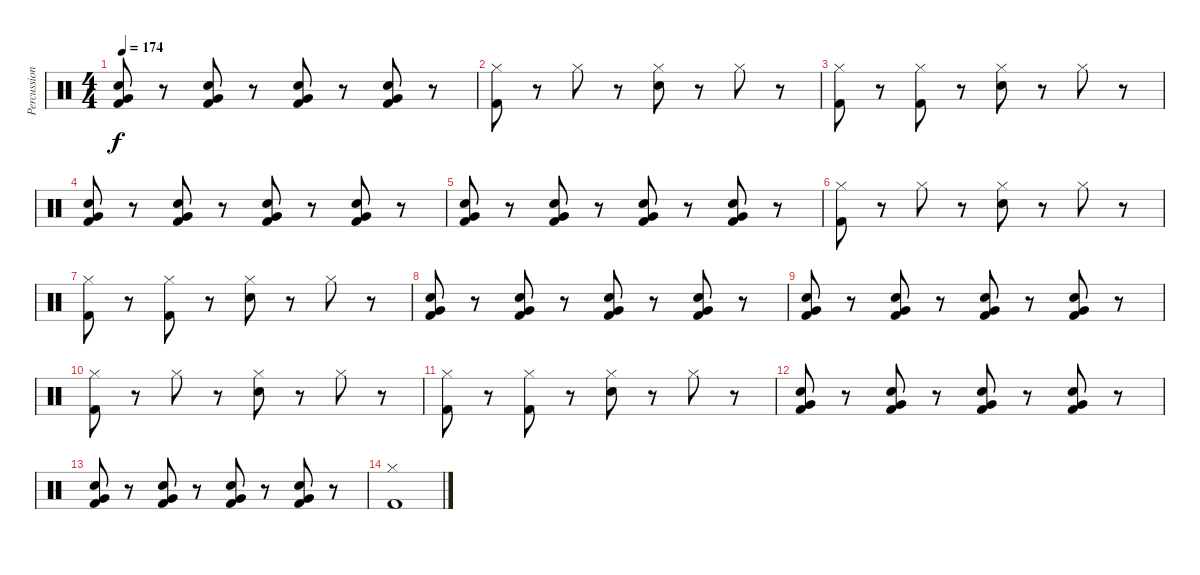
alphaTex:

\track ("Percussion" "Percussion") {instrument percussion}
\staff {score}
\articulation defaults
\ts (4 4)
\tempo 174
\clef neutral
\ks c
("Snare (hit) 2" "Very Low Tom (hit)" "Kick (hit) 2").8{dy f} r.8 ("Snare (hit) 2" "Very Low Tom (hit)" "Kick (hit) 2").8 r.8 ("Snare (hit) 2" "Very Low Tom (hit)" "Kick (hit) 2").8 r.8 ("Snare (hit) 2" "Very Low Tom (hit)" "Kick (hit) 2").8 r.8 |
("Hi-Hat (closed)" "Kick (hit) 2").8 r.8 "Hi-Hat (closed)".8 r.8 ("Hi-Hat (closed)" "Snare (hit) 2").8 r.8 "Hi-Hat (closed)".8 r.8 |
("Hi-Hat (closed)" "Kick (hit) 2").8 r.8 ("Hi-Hat (closed)" "Kick (hit) 2").8 r.8 ("Hi-Hat (closed)" "Snare (hit) 2").8 r.8 "Hi-Hat (closed)".8 r.8 |
("Snare (hit) 2" "Very Low Tom (hit)" "Kick (hit) 2").8 r.8 ("Snare (hit) 2" "Very Low Tom (hit)" "Kick (hit) 2").8 r.8 ("Snare (hit) 2" "Very Low Tom (hit)" "Kick (hit) 2").8 r.8 ("Snare (hit) 2" "Very Low Tom (hit)" "Kick (hit) 2").8 r.8 |
("Snare (hit) 2" "Very Low Tom (hit)" "Kick (hit) 2").8 r.8 ("Snare (hit) 2" "Very Low Tom (hit)" "Kick (hit) 2").8 r.8 ("Snare (hit) 2" "Very Low Tom (hit)" "Kick (hit) 2").8 r.8 ("Snare (hit) 2" "Very Low Tom (hit)" "Kick (hit) 2").8 r.8 |
("Hi-Hat (closed)" "Kick (hit) 2").8 r.8 "Hi-Hat (closed)".8 r.8 ("Hi-Hat (closed)" "Snare (hit) 2").8 r.8 "Hi-Hat (closed)".8 r.8 |
("Hi-Hat (closed)" "Kick (hit) 2").8 r.8 ("Hi-Hat (closed)" "Kick (hit) 2").8 r.8 ("Hi-Hat (closed)" "Snare (hit) 2").8 r.8 "Hi-Hat (closed)".8 r.8 |
("Snare (hit) 2" "Very Low Tom (hit)" "Kick (hit) 2").8 r.8 ("Snare (hit) 2" "Very Low Tom (hit)" "Kick (hit) 2").8 r.8 ("Snare (hit) 2" "Very Low Tom (hit)" "Kick (hit) 2").8 r.8 ("Snare (hit) 2" "Very Low Tom (hit)" "Kick (hit) 2").8 r.8 |
("Snare (hit) 2" "Very Low Tom (hit)" "Kick (hit) 2").8 r.8 ("Snare (hit) 2" "Very Low Tom (hit)" "Kick (hit) 2").8 r.8 ("Snare (hit) 2" "Very Low Tom (hit)" "Kick (hit) 2").8 r.8 ("Snare (hit) 2" "Very Low Tom (hit)" "Kick (hit) 2").8 r.8 |
("Hi-Hat (closed)" "Kick (hit) 2").8 r.8 "Hi-Hat (closed)".8 r.8 ("Hi-Hat (closed)" "Snare (hit) 2").8 r.8 "Hi-Hat (closed)".8 r.8 |
("Hi-Hat (closed)" "Kick (hit) 2").8 r.8 ("Hi-Hat (closed)" "Kick (hit) 2").8 r.8 ("Hi-Hat (closed)" "Snare (hit) 2").8 r.8 "Hi-Hat (closed)".8 r.8 |
("Snare (hit) 2" "Very Low Tom (hit)" "Kick (hit) 2").8 r.8 ("Snare (hit) 2" "Very Low Tom (hit)" "Kick (hit) 2").8 r.8 ("Snare (hit) 2" "Very Low Tom (hit)" "Kick (hit) 2").8 r.8 ("Snare (hit) 2" "Very Low Tom (hit)" "Kick (hit) 2").8 r.8 |
("Snare (hit) 2" "Very Low Tom (hit)" "Kick (hit) 2").8 r.8 ("Snare (hit) 2" "Very Low Tom (hit)" "Kick (hit) 2").8 r.8 ("Snare (hit) 2" "Very Low Tom (hit)" "Kick (hit) 2").8 r.8 ("Snare (hit) 2" "Very Low Tom (hit)" "Kick (hit) 2").8 r.8 |
("Hi-Hat (closed)" "Kick (hit) 2").1
